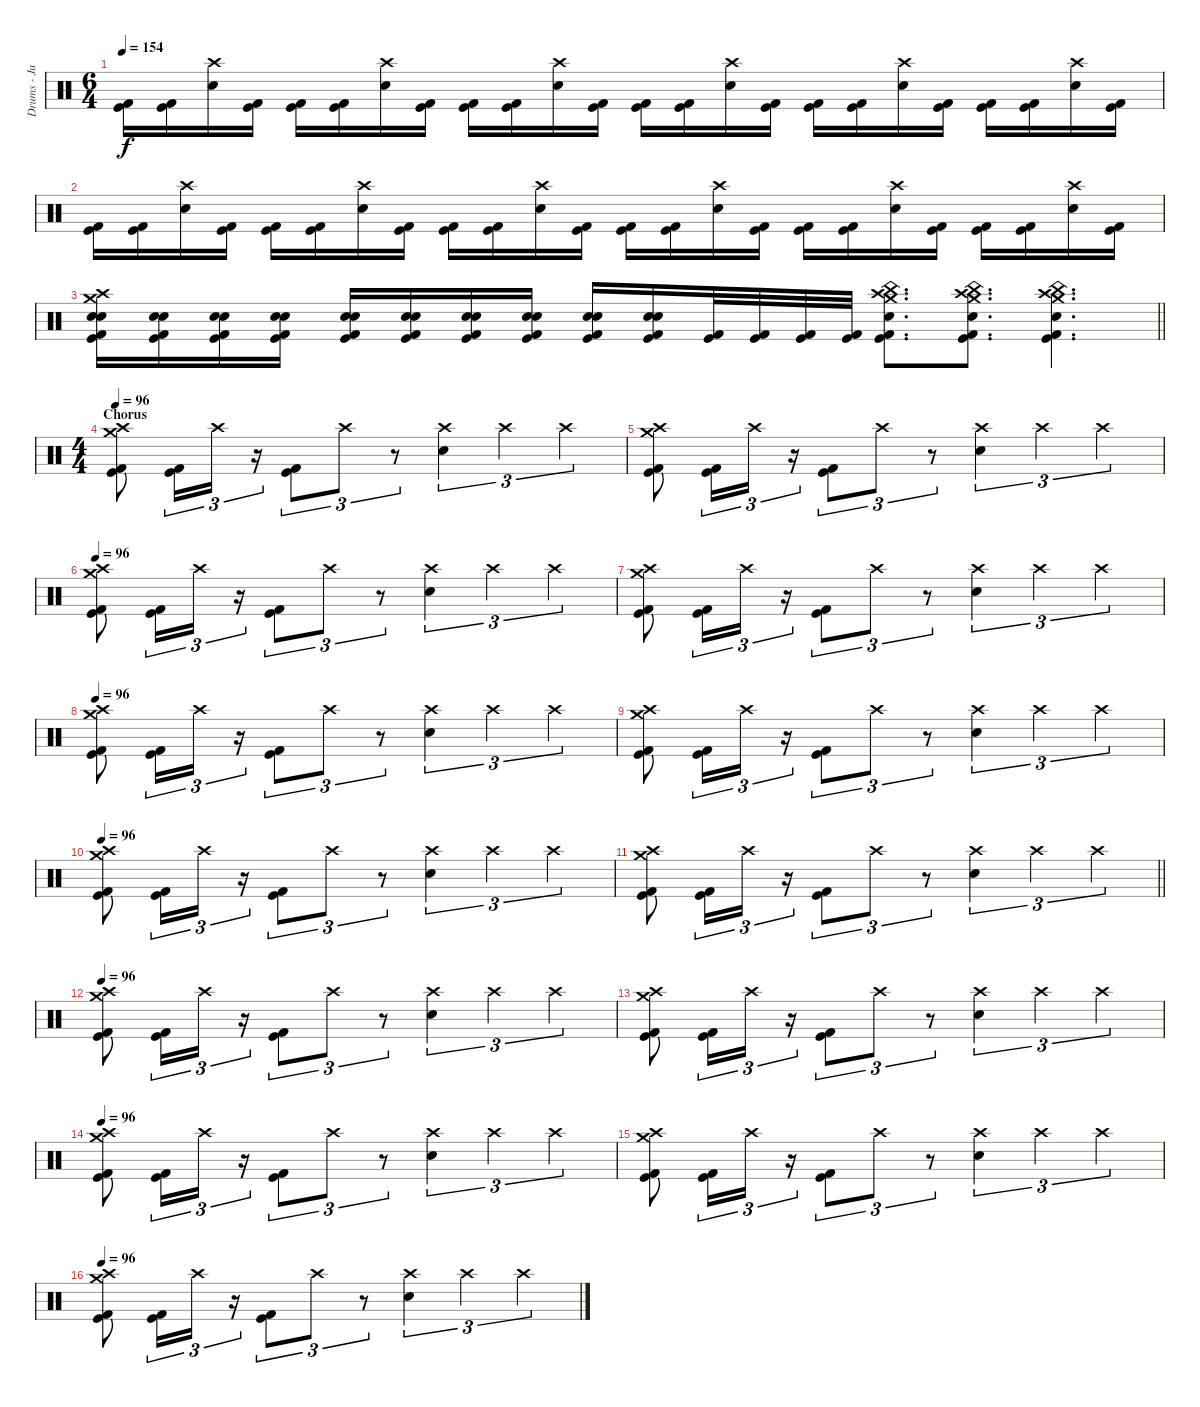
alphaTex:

\track ("Drums - Justin Foley" "Drums - Ju") {instrument percussion}
\staff {score}
\articulation defaults
\ts (6 4)
\tempo 154
\clef neutral
\ks c
("Kick (hit) 2" "Kick (hit)").16{dy f} ("Kick (hit) 2" "Kick (hit)").16 ("Crash high (hit)" "Snare (hit) 2").16 ("Kick (hit) 2" "Kick (hit)").16 ("Kick (hit) 2" "Kick (hit)").16 ("Kick (hit) 2" "Kick (hit)").16 ("Crash high (hit)" "Snare (hit) 2").16 ("Kick (hit) 2" "Kick (hit)").16 ("Kick (hit) 2" "Kick (hit)").16 ("Kick (hit) 2" "Kick (hit)").16 ("Crash high (hit)" "Snare (hit) 2").16 ("Kick (hit) 2" "Kick (hit)").16 ("Kick (hit) 2" "Kick (hit)").16 ("Kick (hit) 2" "Kick (hit)").16 ("Crash high (hit)" "Snare (hit) 2").16 ("Kick (hit) 2" "Kick (hit)").16 ("Kick (hit) 2" "Kick (hit)").16 ("Kick (hit) 2" "Kick (hit)").16 ("Crash high (hit)" "Snare (hit) 2").16 ("Kick (hit) 2" "Kick (hit)").16 ("Kick (hit) 2" "Kick (hit)").16 ("Kick (hit) 2" "Kick (hit)").16 ("Crash high (hit)" "Snare (hit) 2").16 ("Kick (hit) 2" "Kick (hit)").16 |
("Kick (hit) 2" "Kick (hit)").16 ("Kick (hit) 2" "Kick (hit)").16 ("Crash high (hit)" "Snare (hit) 2").16 ("Kick (hit) 2" "Kick (hit)").16 ("Kick (hit) 2" "Kick (hit)").16 ("Kick (hit) 2" "Kick (hit)").16 ("Crash high (hit)" "Snare (hit) 2").16 ("Kick (hit) 2" "Kick (hit)").16 ("Kick (hit) 2" "Kick (hit)").16 ("Kick (hit) 2" "Kick (hit)").16 ("Crash high (hit)" "Snare (hit) 2").16 ("Kick (hit) 2" "Kick (hit)").16 ("Kick (hit) 2" "Kick (hit)").16 ("Kick (hit) 2" "Kick (hit)").16 ("Crash high (hit)" "Snare (hit) 2").16 ("Kick (hit) 2" "Kick (hit)").16 ("Kick (hit) 2" "Kick (hit)").16 ("Kick (hit) 2" "Kick (hit)").16 ("Crash high (hit)" "Snare (hit) 2").16 ("Kick (hit) 2" "Kick (hit)").16 ("Kick (hit) 2" "Kick (hit)").16 ("Kick (hit) 2" "Kick (hit)").16 ("Crash high (hit)" "Snare (hit) 2").16 ("Kick (hit) 2" "Kick (hit)").16 |
\barLineRight lightlight
("Snare (hit) 2" "Snare (hit) 2" "Kick (hit) 2" "Kick (hit)" "Crash high (hit)" "Crash medium (hit)").16 ("Snare (hit) 2" "Snare (hit) 2" "Kick (hit) 2" "Kick (hit)").16 ("Snare (hit) 2" "Snare (hit) 2" "Kick (hit) 2" "Kick (hit)").16 ("Snare (hit) 2" "Snare (hit) 2" "Kick (hit) 2" "Kick (hit)").16 ("Snare (hit) 2" "Snare (hit) 2" "Kick (hit) 2" "Kick (hit)").16 ("Snare (hit) 2" "Snare (hit) 2" "Kick (hit) 2" "Kick (hit)").16 ("Snare (hit) 2" "Snare (hit) 2" "Kick (hit) 2" "Kick (hit)").16 ("Snare (hit) 2" "Snare (hit) 2" "Kick (hit) 2" "Kick (hit)").16 ("Snare (hit) 2" "Snare (hit) 2" "Kick (hit) 2" "Kick (hit)").16 ("Snare (hit) 2" "Snare (hit) 2" "Kick (hit) 2" "Kick (hit)").16 ("Kick (hit) 2" "Kick (hit)").32 ("Kick (hit) 2" "Kick (hit)").32 ("Kick (hit) 2" "Kick (hit)").32 ("Kick (hit) 2" "Kick (hit)").32 ("Crash high (hit)" "Crash medium (hit)" "Snare (hit) 2" "Kick (hit) 2" "Kick (hit)" "China (hit)").8{d} ("Crash high (hit)" "Crash medium (hit)" "Snare (hit) 2" "Kick (hit) 2" "Kick (hit)" "China (hit)").8{d} ("Crash high (hit)" "Crash medium (hit)" "Snare (hit) 2" "Kick (hit) 2" "Kick (hit)" "China (hit)").4{d} |
\ts (4 4)
\section ("" "Chorus")
\tempo 96
("Crash high (hit)" "Kick (hit) 2" "Kick (hit)" "Crash medium (hit)").8 ("Kick (hit) 2" "Kick (hit)").16{tu (3 2)} "Crash high (hit)".16{tu (3 2)} r.16{tu (3 2)} ("Kick (hit) 2" "Kick (hit)").8{tu (3 2)} "Crash high (hit)".8{tu (3 2)} r.8{tu (3 2)} ("Crash high (hit)" "Snare (hit) 2").4{tu (3 2)} "Crash high (hit)".4{tu (3 2)} "Crash high (hit)".4{tu (3 2)} |
("Crash high (hit)" "Kick (hit) 2" "Kick (hit)" "Crash medium (hit)").8 ("Kick (hit) 2" "Kick (hit)").16{tu (3 2)} "Crash high (hit)".16{tu (3 2)} r.16{tu (3 2)} ("Kick (hit) 2" "Kick (hit)").8{tu (3 2)} "Crash high (hit)".8{tu (3 2)} r.8{tu (3 2)} ("Crash high (hit)" "Snare (hit) 2").4{tu (3 2)} "Crash high (hit)".4{tu (3 2)} "Crash high (hit)".4{tu (3 2)} |
\tempo 96
("Crash high (hit)" "Kick (hit) 2" "Kick (hit)" "Crash medium (hit)").8 ("Kick (hit) 2" "Kick (hit)").16{tu (3 2)} "Crash high (hit)".16{tu (3 2)} r.16{tu (3 2)} ("Kick (hit) 2" "Kick (hit)").8{tu (3 2)} "Crash high (hit)".8{tu (3 2)} r.8{tu (3 2)} ("Crash high (hit)" "Snare (hit) 2").4{tu (3 2)} "Crash high (hit)".4{tu (3 2)} "Crash high (hit)".4{tu (3 2)} |
("Crash high (hit)" "Kick (hit) 2" "Kick (hit)" "Crash medium (hit)").8 ("Kick (hit) 2" "Kick (hit)").16{tu (3 2)} "Crash high (hit)".16{tu (3 2)} r.16{tu (3 2)} ("Kick (hit) 2" "Kick (hit)").8{tu (3 2)} "Crash high (hit)".8{tu (3 2)} r.8{tu (3 2)} ("Crash high (hit)" "Snare (hit) 2").4{tu (3 2)} "Crash high (hit)".4{tu (3 2)} "Crash high (hit)".4{tu (3 2)} |
\tempo 96
("Crash high (hit)" "Kick (hit) 2" "Kick (hit)" "Crash medium (hit)").8 ("Kick (hit) 2" "Kick (hit)").16{tu (3 2)} "Crash high (hit)".16{tu (3 2)} r.16{tu (3 2)} ("Kick (hit) 2" "Kick (hit)").8{tu (3 2)} "Crash high (hit)".8{tu (3 2)} r.8{tu (3 2)} ("Crash high (hit)" "Snare (hit) 2").4{tu (3 2)} "Crash high (hit)".4{tu (3 2)} "Crash high (hit)".4{tu (3 2)} |
("Crash high (hit)" "Kick (hit) 2" "Kick (hit)" "Crash medium (hit)").8 ("Kick (hit) 2" "Kick (hit)").16{tu (3 2)} "Crash high (hit)".16{tu (3 2)} r.16{tu (3 2)} ("Kick (hit) 2" "Kick (hit)").8{tu (3 2)} "Crash high (hit)".8{tu (3 2)} r.8{tu (3 2)} ("Crash high (hit)" "Snare (hit) 2").4{tu (3 2)} "Crash high (hit)".4{tu (3 2)} "Crash high (hit)".4{tu (3 2)} |
\tempo 96
("Crash high (hit)" "Kick (hit) 2" "Kick (hit)" "Crash medium (hit)").8 ("Kick (hit) 2" "Kick (hit)").16{tu (3 2)} "Crash high (hit)".16{tu (3 2)} r.16{tu (3 2)} ("Kick (hit) 2" "Kick (hit)").8{tu (3 2)} "Crash high (hit)".8{tu (3 2)} r.8{tu (3 2)} ("Crash high (hit)" "Snare (hit) 2").4{tu (3 2)} "Crash high (hit)".4{tu (3 2)} "Crash high (hit)".4{tu (3 2)} |
\barLineRight lightlight
("Crash high (hit)" "Kick (hit) 2" "Kick (hit)" "Crash medium (hit)").8 ("Kick (hit) 2" "Kick (hit)").16{tu (3 2)} "Crash high (hit)".16{tu (3 2)} r.16{tu (3 2)} ("Kick (hit) 2" "Kick (hit)").8{tu (3 2)} "Crash high (hit)".8{tu (3 2)} r.8{tu (3 2)} ("Crash high (hit)" "Snare (hit) 2").4{tu (3 2)} "Crash high (hit)".4{tu (3 2)} "Crash high (hit)".4{tu (3 2)} |
\tempo 96
("Crash high (hit)" "Kick (hit) 2" "Kick (hit)" "Crash medium (hit)").8 ("Kick (hit) 2" "Kick (hit)").16{tu (3 2)} "Crash high (hit)".16{tu (3 2)} r.16{tu (3 2)} ("Kick (hit) 2" "Kick (hit)").8{tu (3 2)} "Crash high (hit)".8{tu (3 2)} r.8{tu (3 2)} ("Crash high (hit)" "Snare (hit) 2").4{tu (3 2)} "Crash high (hit)".4{tu (3 2)} "Crash high (hit)".4{tu (3 2)} |
("Crash high (hit)" "Kick (hit) 2" "Kick (hit)" "Crash medium (hit)").8 ("Kick (hit) 2" "Kick (hit)").16{tu (3 2)} "Crash high (hit)".16{tu (3 2)} r.16{tu (3 2)} ("Kick (hit) 2" "Kick (hit)").8{tu (3 2)} "Crash high (hit)".8{tu (3 2)} r.8{tu (3 2)} ("Crash high (hit)" "Snare (hit) 2").4{tu (3 2)} "Crash high (hit)".4{tu (3 2)} "Crash high (hit)".4{tu (3 2)} |
\tempo 96
("Crash high (hit)" "Kick (hit) 2" "Kick (hit)" "Crash medium (hit)").8 ("Kick (hit) 2" "Kick (hit)").16{tu (3 2)} "Crash high (hit)".16{tu (3 2)} r.16{tu (3 2)} ("Kick (hit) 2" "Kick (hit)").8{tu (3 2)} "Crash high (hit)".8{tu (3 2)} r.8{tu (3 2)} ("Crash high (hit)" "Snare (hit) 2").4{tu (3 2)} "Crash high (hit)".4{tu (3 2)} "Crash high (hit)".4{tu (3 2)} |
("Crash high (hit)" "Kick (hit) 2" "Kick (hit)" "Crash medium (hit)").8 ("Kick (hit) 2" "Kick (hit)").16{tu (3 2)} "Crash high (hit)".16{tu (3 2)} r.16{tu (3 2)} ("Kick (hit) 2" "Kick (hit)").8{tu (3 2)} "Crash high (hit)".8{tu (3 2)} r.8{tu (3 2)} ("Crash high (hit)" "Snare (hit) 2").4{tu (3 2)} "Crash high (hit)".4{tu (3 2)} "Crash high (hit)".4{tu (3 2)} |
\tempo 96
("Crash high (hit)" "Kick (hit) 2" "Kick (hit)" "Crash medium (hit)").8 ("Kick (hit) 2" "Kick (hit)").16{tu (3 2)} "Crash high (hit)".16{tu (3 2)} r.16{tu (3 2)} ("Kick (hit) 2" "Kick (hit)").8{tu (3 2)} "Crash high (hit)".8{tu (3 2)} r.8{tu (3 2)} ("Crash high (hit)" "Snare (hit) 2").4{tu (3 2)} "Crash high (hit)".4{tu (3 2)} "Crash high (hit)".4{tu (3 2)}
